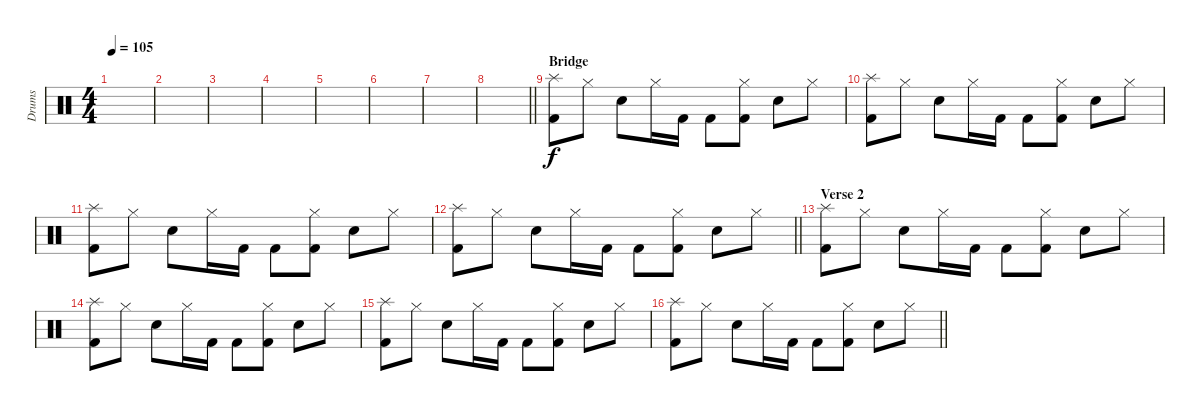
\track ("Drums" "Drums") {instrument percussion}
\staff {score}
\articulation defaults
\ts (4 4)
\tempo 105
\clef neutral
\ks c
|
|
|
|
|
|
|
\barLineRight lightlight
|
\section ("" "Bridge")
("Splash (hit)" "Kick (hit) 2").8 "Hi-Hat (closed)".8 "Electric Snare (hit)".8 "Hi-Hat (closed)".16 "Kick (hit) 2".16 "Kick (hit) 2".8 ("Hi-Hat (closed)" "Kick (hit) 2").8 "Electric Snare (hit)".8 "Hi-Hat (closed)".8 |
("Splash (hit)" "Kick (hit) 2").8 "Hi-Hat (closed)".8 "Electric Snare (hit)".8 "Hi-Hat (closed)".16 "Kick (hit) 2".16 "Kick (hit) 2".8 ("Hi-Hat (closed)" "Kick (hit) 2").8 "Electric Snare (hit)".8 "Hi-Hat (closed)".8 |
("Splash (hit)" "Kick (hit) 2").8 "Hi-Hat (closed)".8 "Electric Snare (hit)".8 "Hi-Hat (closed)".16 "Kick (hit) 2".16 "Kick (hit) 2".8 ("Hi-Hat (closed)" "Kick (hit) 2").8 "Electric Snare (hit)".8 "Hi-Hat (closed)".8 |
\barLineRight lightlight
("Splash (hit)" "Kick (hit) 2").8 "Hi-Hat (closed)".8 "Electric Snare (hit)".8 "Hi-Hat (closed)".16 "Kick (hit) 2".16 "Kick (hit) 2".8 ("Hi-Hat (closed)" "Kick (hit) 2").8 "Electric Snare (hit)".8 "Hi-Hat (closed)".8 |
\section ("" "Verse 2")
("Splash (hit)" "Kick (hit) 2").8 "Hi-Hat (closed)".8 "Electric Snare (hit)".8 "Hi-Hat (closed)".16 "Kick (hit) 2".16 "Kick (hit) 2".8 ("Hi-Hat (closed)" "Kick (hit) 2").8 "Electric Snare (hit)".8 "Hi-Hat (closed)".8 |
("Splash (hit)" "Kick (hit) 2").8 "Hi-Hat (closed)".8 "Electric Snare (hit)".8 "Hi-Hat (closed)".16 "Kick (hit) 2".16 "Kick (hit) 2".8 ("Hi-Hat (closed)" "Kick (hit) 2").8 "Electric Snare (hit)".8 "Hi-Hat (closed)".8 |
("Splash (hit)" "Kick (hit) 2").8 "Hi-Hat (closed)".8 "Electric Snare (hit)".8 "Hi-Hat (closed)".16 "Kick (hit) 2".16 "Kick (hit) 2".8 ("Hi-Hat (closed)" "Kick (hit) 2").8 "Electric Snare (hit)".8 "Hi-Hat (closed)".8 |
\barLineRight lightlight
("Splash (hit)" "Kick (hit) 2").8 "Hi-Hat (closed)".8 "Electric Snare (hit)".8 "Hi-Hat (closed)".16 "Kick (hit) 2".16 "Kick (hit) 2".8 ("Hi-Hat (closed)" "Kick (hit) 2").8 "Electric Snare (hit)".8 "Hi-Hat (closed)".8
